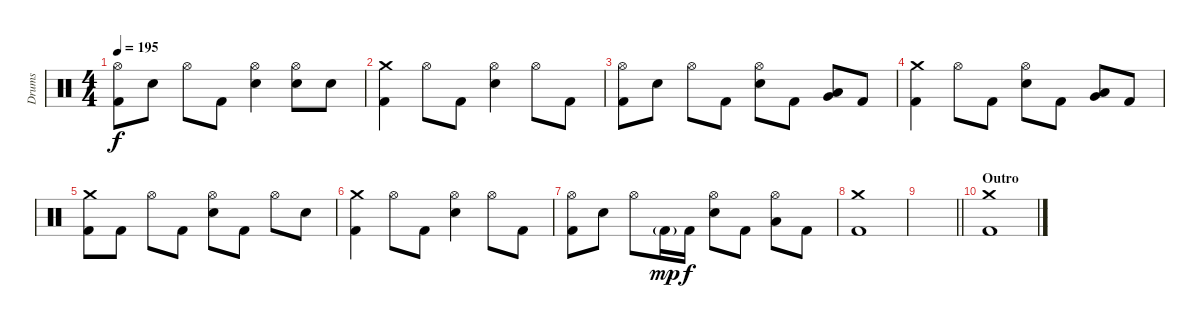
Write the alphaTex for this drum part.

\track ("Drums" "Drums") {instrument percussion}
\staff {score}
\articulation defaults
\ts (4 4)
\tempo 195
\clef neutral
\ks c
("Hi-Hat (open)" "Kick (hit) 2").8{dy f} "Electric Snare (hit)".8 "Hi-Hat (open)".8 "Kick (hit) 2".8 ("Hi-Hat (open)" "Electric Snare (hit)").4 ("Hi-Hat (open)" "Electric Snare (hit)").8 "Electric Snare (hit)".8 |
("Crash medium (hit)" "Kick (hit) 2").4 "Hi-Hat (open)".8 "Kick (hit) 2".8 ("Hi-Hat (open)" "Electric Snare (hit)").4 "Hi-Hat (open)".8 "Kick (hit) 2".8 |
("Hi-Hat (open)" "Kick (hit) 2").8 "Electric Snare (hit)".8 "Hi-Hat (open)".8 "Kick (hit) 2".8 ("Hi-Hat (open)" "Electric Snare (hit)").8 "Kick (hit) 2".8 ("Low Floor Tom (hit)" "Very Low Tom (hit)").8 "Kick (hit) 2".8 |
("Crash medium (hit)" "Kick (hit) 2").4 "Hi-Hat (open)".8 "Kick (hit) 2".8 ("Hi-Hat (open)" "Electric Snare (hit)").8 "Kick (hit) 2".8 ("Low Floor Tom (hit)" "Very Low Tom (hit)").8 "Kick (hit) 2".8 |
("Crash medium (hit)" "Kick (hit) 2").8 "Kick (hit) 2".8 "Hi-Hat (open)".8 "Kick (hit) 2".8 ("Hi-Hat (open)" "Electric Snare (hit)").8 "Kick (hit) 2".8 "Hi-Hat (open)".8 "Electric Snare (hit)".8 |
("Crash medium (hit)" "Kick (hit) 2").4 "Hi-Hat (open)".8 "Kick (hit) 2".8 ("Hi-Hat (open)" "Electric Snare (hit)").4 "Hi-Hat (open)".8 "Kick (hit) 2".8 |
("Hi-Hat (open)" "Kick (hit) 2").8 "Electric Snare (hit)".8 "Hi-Hat (open)".8 "Kick (hit) 2"{g}.16{dy mp} "Kick (hit) 2".16{dy f} ("Hi-Hat (open)" "Electric Snare (hit)").8 "Kick (hit) 2".8 ("Hi-Hat (open)" "Low Floor Tom (hit)").8 "Kick (hit) 2".8 |
("Crash medium (hit)" "Kick (hit) 2").1 |
\barLineRight lightlight
|
\section ("" "Outro")
("Crash medium (hit)" "Kick (hit) 2").1
